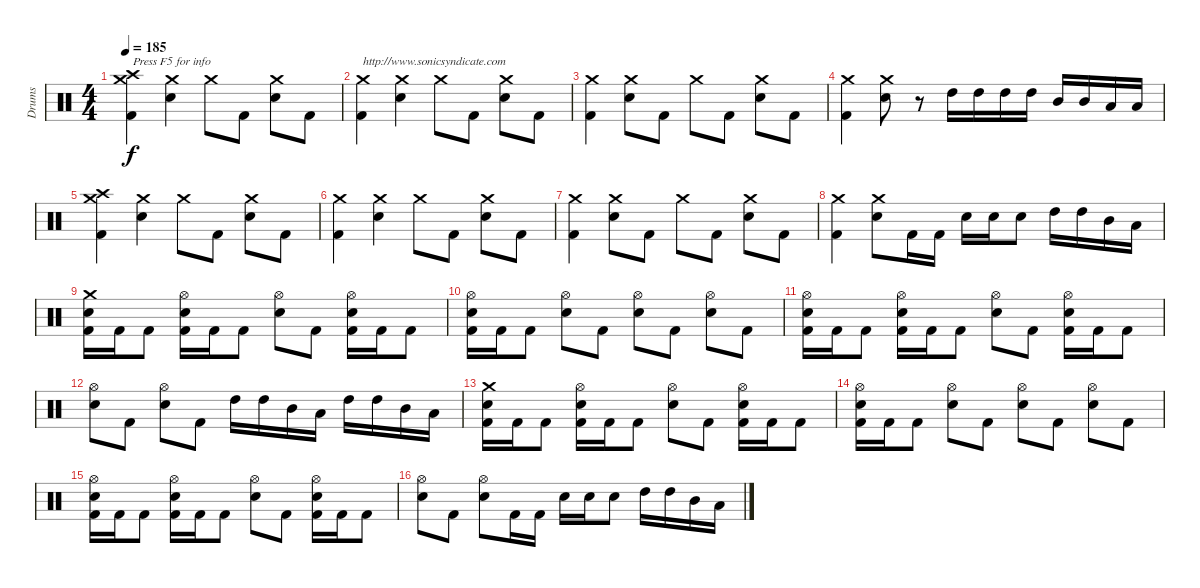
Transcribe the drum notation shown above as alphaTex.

\track ("Drums" "Drums") {solo instrument percussion}
\staff {score}
\articulation defaults
\ts (4 4)
\tempo 185
\clef neutral
\ks c
("Crash high (hit)" "Crash medium (hit)" "Kick (hit) 2").4{txt "Press F5 for info" dy f} ("Snare (hit) 2" "Crash medium (hit)").4 "Crash medium (hit)".8 "Kick (hit) 2".8 ("Snare (hit) 2" "Crash medium (hit)").8 "Kick (hit) 2".8 |
("Crash medium (hit)" "Kick (hit) 2").4{txt "http://www.sonicsyndicate.com"} ("Snare (hit) 2" "Crash medium (hit)").4 "Crash medium (hit)".8 "Kick (hit) 2".8 ("Snare (hit) 2" "Crash medium (hit)").8 "Kick (hit) 2".8 |
("Crash medium (hit)" "Kick (hit) 2").4 ("Snare (hit) 2" "Crash medium (hit)").8 "Kick (hit) 2".8 "Crash medium (hit)".8 "Kick (hit) 2".8 ("Snare (hit) 2" "Crash medium (hit)").8 "Kick (hit) 2".8 |
("Crash medium (hit)" "Kick (hit) 2").4 ("Snare (hit) 2" "Crash medium (hit)").8 r.8 "High Tom (hit)".16 "High Tom (hit)".16 "High Tom (hit)".16 "High Tom (hit)".16 "Mid Tom (hit)".16 "Mid Tom (hit)".16 "Low Tom (hit)".16 "Low Tom (hit)".16 |
("Crash high (hit)" "Crash medium (hit)" "Kick (hit) 2").4 ("Snare (hit) 2" "Crash medium (hit)").4 "Crash medium (hit)".8 "Kick (hit) 2".8 ("Snare (hit) 2" "Crash medium (hit)").8 "Kick (hit) 2".8 |
("Crash medium (hit)" "Kick (hit) 2").4 ("Snare (hit) 2" "Crash medium (hit)").4 "Crash medium (hit)".8 "Kick (hit) 2".8 ("Snare (hit) 2" "Crash medium (hit)").8 "Kick (hit) 2".8 |
("Crash medium (hit)" "Kick (hit) 2").4 ("Snare (hit) 2" "Crash medium (hit)").8 "Kick (hit) 2".8 "Crash medium (hit)".8 "Kick (hit) 2".8 ("Snare (hit) 2" "Crash medium (hit)").8 "Kick (hit) 2".8 |
("Crash medium (hit)" "Kick (hit) 2").4 ("Snare (hit) 2" "Crash medium (hit)").8 "Kick (hit) 2".16 "Kick (hit) 2".16 "Snare (hit) 2".16 "Snare (hit) 2".16 "Snare (hit) 2".8 "High Tom (hit)".16 "High Tom (hit)".16 "Mid Tom (hit)".16 "Low Tom (hit)".16 |
("Snare (hit) 2" "Crash medium (hit)" "Kick (hit) 2").16 "Kick (hit) 2".16 "Kick (hit) 2".8 ("Snare (hit) 2" "Hi-Hat (open)" "Kick (hit) 2").16 "Kick (hit) 2".16 "Kick (hit) 2".8 ("Snare (hit) 2" "Hi-Hat (open)").8 "Kick (hit) 2".8 ("Snare (hit) 2" "Hi-Hat (open)" "Kick (hit) 2").16 "Kick (hit) 2".16 "Kick (hit) 2".8 |
("Snare (hit) 2" "Hi-Hat (open)" "Kick (hit) 2").16 "Kick (hit) 2".16 "Kick (hit) 2".8 ("Snare (hit) 2" "Hi-Hat (open)").8 "Kick (hit) 2".8 ("Snare (hit) 2" "Hi-Hat (open)").8 "Kick (hit) 2".8 ("Snare (hit) 2" "Hi-Hat (open)").8 "Kick (hit) 2".8 |
("Snare (hit) 2" "Hi-Hat (open)" "Kick (hit) 2").16 "Kick (hit) 2".16 "Kick (hit) 2".8 ("Snare (hit) 2" "Hi-Hat (open)" "Kick (hit) 2").16 "Kick (hit) 2".16 "Kick (hit) 2".8 ("Snare (hit) 2" "Hi-Hat (open)").8 "Kick (hit) 2".8 ("Snare (hit) 2" "Hi-Hat (open)" "Kick (hit) 2").16 "Kick (hit) 2".16 "Kick (hit) 2".8 |
("Snare (hit) 2" "Hi-Hat (open)").8 "Kick (hit) 2".8 ("Snare (hit) 2" "Hi-Hat (open)").8 "Kick (hit) 2".8 "High Tom (hit)".16 "High Tom (hit)".16 "Mid Tom (hit)".16 "Low Tom (hit)".16 "High Tom (hit)".16 "High Tom (hit)".16 "Mid Tom (hit)".16 "Low Tom (hit)".16 |
("Snare (hit) 2" "Crash medium (hit)" "Kick (hit) 2").16 "Kick (hit) 2".16 "Kick (hit) 2".8 ("Snare (hit) 2" "Hi-Hat (open)" "Kick (hit) 2").16 "Kick (hit) 2".16 "Kick (hit) 2".8 ("Snare (hit) 2" "Hi-Hat (open)").8 "Kick (hit) 2".8 ("Snare (hit) 2" "Hi-Hat (open)" "Kick (hit) 2").16 "Kick (hit) 2".16 "Kick (hit) 2".8 |
("Snare (hit) 2" "Hi-Hat (open)" "Kick (hit) 2").16 "Kick (hit) 2".16 "Kick (hit) 2".8 ("Snare (hit) 2" "Hi-Hat (open)").8 "Kick (hit) 2".8 ("Snare (hit) 2" "Hi-Hat (open)").8 "Kick (hit) 2".8 ("Snare (hit) 2" "Hi-Hat (open)").8 "Kick (hit) 2".8 |
("Snare (hit) 2" "Hi-Hat (open)" "Kick (hit) 2").16 "Kick (hit) 2".16 "Kick (hit) 2".8 ("Snare (hit) 2" "Hi-Hat (open)" "Kick (hit) 2").16 "Kick (hit) 2".16 "Kick (hit) 2".8 ("Snare (hit) 2" "Hi-Hat (open)").8 "Kick (hit) 2".8 ("Snare (hit) 2" "Hi-Hat (open)" "Kick (hit) 2").16 "Kick (hit) 2".16 "Kick (hit) 2".8 |
("Snare (hit) 2" "Hi-Hat (open)").8 "Kick (hit) 2".8 ("Snare (hit) 2" "Hi-Hat (open)").8 "Kick (hit) 2".16 "Kick (hit) 2".16 "Snare (hit) 2".16 "Snare (hit) 2".16 "Snare (hit) 2".8 "High Tom (hit)".16 "High Tom (hit)".16 "Mid Tom (hit)".16 "Low Tom (hit)".16
